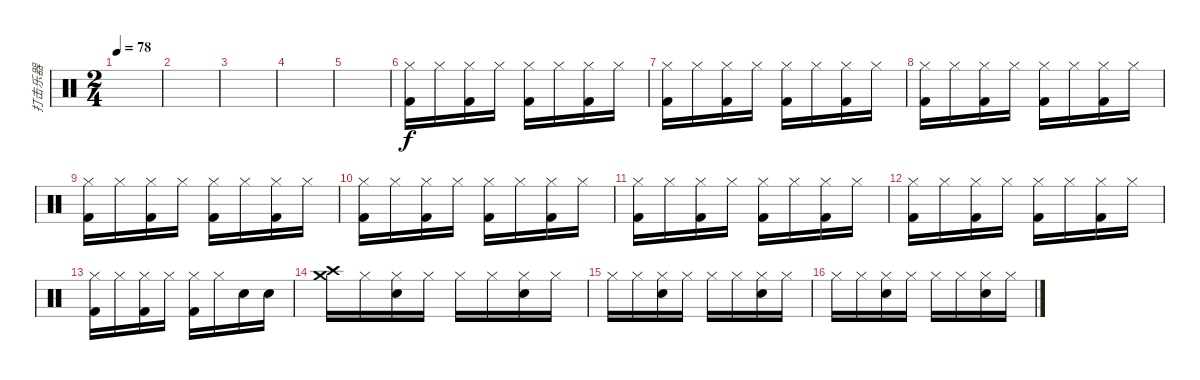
\track ("打击乐器" "打击乐器") {instrument percussion}
\staff {score}
\articulation defaults
\ts (2 4)
\tempo 78
\clef neutral
\ks c
|
|
|
|
|
("Hi-Hat (closed)" "Kick (hit) 2").16 "Hi-Hat (closed)".16 ("Hi-Hat (closed)" "Kick (hit) 2").16 "Hi-Hat (closed)".16 ("Hi-Hat (closed)" "Kick (hit) 2").16 "Hi-Hat (closed)".16 ("Hi-Hat (closed)" "Kick (hit) 2").16 "Hi-Hat (closed)".16 |
("Hi-Hat (closed)" "Kick (hit) 2").16 "Hi-Hat (closed)".16 ("Hi-Hat (closed)" "Kick (hit) 2").16 "Hi-Hat (closed)".16 ("Hi-Hat (closed)" "Kick (hit) 2").16 "Hi-Hat (closed)".16 ("Hi-Hat (closed)" "Kick (hit) 2").16 "Hi-Hat (closed)".16 |
("Hi-Hat (closed)" "Kick (hit) 2").16 "Hi-Hat (closed)".16 ("Hi-Hat (closed)" "Kick (hit) 2").16 "Hi-Hat (closed)".16 ("Hi-Hat (closed)" "Kick (hit) 2").16 "Hi-Hat (closed)".16 ("Hi-Hat (closed)" "Kick (hit) 2").16 "Hi-Hat (closed)".16 |
("Hi-Hat (closed)" "Kick (hit) 2").16 "Hi-Hat (closed)".16 ("Hi-Hat (closed)" "Kick (hit) 2").16 "Hi-Hat (closed)".16 ("Hi-Hat (closed)" "Kick (hit) 2").16 "Hi-Hat (closed)".16 ("Hi-Hat (closed)" "Kick (hit) 2").16 "Hi-Hat (closed)".16 |
("Hi-Hat (closed)" "Kick (hit) 2").16 "Hi-Hat (closed)".16 ("Hi-Hat (closed)" "Kick (hit) 2").16 "Hi-Hat (closed)".16 ("Hi-Hat (closed)" "Kick (hit) 2").16 "Hi-Hat (closed)".16 ("Hi-Hat (closed)" "Kick (hit) 2").16 "Hi-Hat (closed)".16 |
("Hi-Hat (closed)" "Kick (hit) 2").16 "Hi-Hat (closed)".16 ("Hi-Hat (closed)" "Kick (hit) 2").16 "Hi-Hat (closed)".16 ("Hi-Hat (closed)" "Kick (hit) 2").16 "Hi-Hat (closed)".16 ("Hi-Hat (closed)" "Kick (hit) 2").16 "Hi-Hat (closed)".16 |
("Hi-Hat (closed)" "Kick (hit) 2").16 "Hi-Hat (closed)".16 ("Hi-Hat (closed)" "Kick (hit) 2").16 "Hi-Hat (closed)".16 ("Hi-Hat (closed)" "Kick (hit) 2").16 "Hi-Hat (closed)".16 ("Hi-Hat (closed)" "Kick (hit) 2").16 "Hi-Hat (closed)".16 |
("Hi-Hat (closed)" "Kick (hit) 2").16 "Hi-Hat (closed)".16 ("Hi-Hat (closed)" "Kick (hit) 2").16 "Hi-Hat (closed)".16 ("Hi-Hat (closed)" "Kick (hit) 2").16 "Hi-Hat (closed)".16 "Electric Snare (hit)".16 "Electric Snare (hit)".16 |
("Crash high (hit)" "Crash medium (hit)").16 "Hi-Hat (closed)".16 ("Hi-Hat (closed)" "Snare (hit) 2").16 "Hi-Hat (closed)".16 "Hi-Hat (closed)".16 "Hi-Hat (closed)".16 ("Hi-Hat (closed)" "Snare (hit) 2").16 "Hi-Hat (closed)".16 |
"Hi-Hat (closed)".16 "Hi-Hat (closed)".16 ("Hi-Hat (closed)" "Snare (hit) 2").16 "Hi-Hat (closed)".16 "Hi-Hat (closed)".16 "Hi-Hat (closed)".16 ("Hi-Hat (closed)" "Snare (hit) 2").16 "Hi-Hat (closed)".16 |
"Hi-Hat (closed)".16 "Hi-Hat (closed)".16 ("Hi-Hat (closed)" "Snare (hit) 2").16 "Hi-Hat (closed)".16 "Hi-Hat (closed)".16 "Hi-Hat (closed)".16 ("Hi-Hat (closed)" "Snare (hit) 2").16 "Hi-Hat (closed)".16
